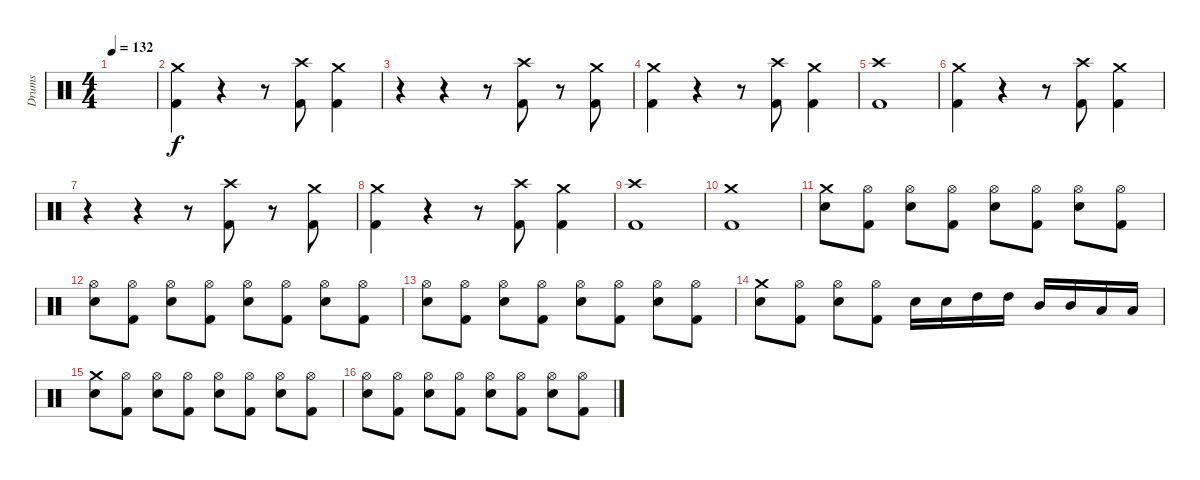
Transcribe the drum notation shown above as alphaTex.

\track ("Drums" "Drums") {instrument percussion}
\staff {score}
\articulation defaults
\ts (4 4)
\tempo 132
\clef neutral
\ks c
|
("Crash medium (hit)" "Kick (hit) 2").4 r.4 r.8 ("Crash high (hit)" "Kick (hit) 2").8 ("Crash medium (hit)" "Kick (hit) 2").4 |
r.4 r.4 r.8 ("Crash high (hit)" "Kick (hit) 2").8 r.8 ("Crash medium (hit)" "Kick (hit) 2").8 |
("Crash medium (hit)" "Kick (hit) 2").4 r.4 r.8 ("Crash high (hit)" "Kick (hit) 2").8 ("Crash medium (hit)" "Kick (hit) 2").4 |
("Crash high (hit)" "Kick (hit) 2").1 |
("Crash medium (hit)" "Kick (hit) 2").4 r.4 r.8 ("Crash high (hit)" "Kick (hit) 2").8 ("Crash medium (hit)" "Kick (hit) 2").4 |
r.4 r.4 r.8 ("Crash high (hit)" "Kick (hit) 2").8 r.8 ("Crash medium (hit)" "Kick (hit) 2").8 |
("Crash medium (hit)" "Kick (hit) 2").4 r.4 r.8 ("Crash high (hit)" "Kick (hit) 2").8 ("Crash medium (hit)" "Kick (hit) 2").4 |
("Crash high (hit)" "Kick (hit) 2").1 |
("Crash medium (hit)" "Kick (hit) 2").1 |
("Crash medium (hit)" "Electric Snare (hit)").8 ("Hi-Hat (open)" "Kick (hit) 2").8 ("Hi-Hat (open)" "Electric Snare (hit)").8 ("Hi-Hat (open)" "Kick (hit) 2").8 ("Hi-Hat (open)" "Electric Snare (hit)").8 ("Hi-Hat (open)" "Kick (hit) 2").8 ("Hi-Hat (open)" "Electric Snare (hit)").8 ("Hi-Hat (open)" "Kick (hit) 2").8 |
("Hi-Hat (open)" "Electric Snare (hit)").8 ("Hi-Hat (open)" "Kick (hit) 2").8 ("Hi-Hat (open)" "Electric Snare (hit)").8 ("Hi-Hat (open)" "Kick (hit) 2").8 ("Hi-Hat (open)" "Electric Snare (hit)").8 ("Hi-Hat (open)" "Kick (hit) 2").8 ("Hi-Hat (open)" "Electric Snare (hit)").8 ("Hi-Hat (open)" "Kick (hit) 2").8 |
("Hi-Hat (open)" "Electric Snare (hit)").8 ("Hi-Hat (open)" "Kick (hit) 2").8 ("Hi-Hat (open)" "Electric Snare (hit)").8 ("Hi-Hat (open)" "Kick (hit) 2").8 ("Hi-Hat (open)" "Electric Snare (hit)").8 ("Hi-Hat (open)" "Kick (hit) 2").8 ("Hi-Hat (open)" "Electric Snare (hit)").8 ("Hi-Hat (open)" "Kick (hit) 2").8 |
("Crash medium (hit)" "Electric Snare (hit)").8 ("Hi-Hat (open)" "Kick (hit) 2").8 ("Hi-Hat (open)" "Electric Snare (hit)").8 ("Hi-Hat (open)" "Kick (hit) 2").8 "Electric Snare (hit)".16 "Electric Snare (hit)".16 "High Tom (hit)".16 "High Tom (hit)".16 "Mid Tom (hit)".16 "Mid Tom (hit)".16 "Low Tom (hit)".16 "Low Tom (hit)".16 |
("Crash medium (hit)" "Electric Snare (hit)").8 ("Hi-Hat (open)" "Kick (hit) 2").8 ("Hi-Hat (open)" "Electric Snare (hit)").8 ("Hi-Hat (open)" "Kick (hit) 2").8 ("Hi-Hat (open)" "Electric Snare (hit)").8 ("Hi-Hat (open)" "Kick (hit) 2").8 ("Hi-Hat (open)" "Electric Snare (hit)").8 ("Hi-Hat (open)" "Kick (hit) 2").8 |
("Hi-Hat (open)" "Electric Snare (hit)").8 ("Hi-Hat (open)" "Kick (hit) 2").8 ("Hi-Hat (open)" "Electric Snare (hit)").8 ("Hi-Hat (open)" "Kick (hit) 2").8 ("Hi-Hat (open)" "Electric Snare (hit)").8 ("Hi-Hat (open)" "Kick (hit) 2").8 ("Hi-Hat (open)" "Electric Snare (hit)").8 ("Hi-Hat (open)" "Kick (hit) 2").8
